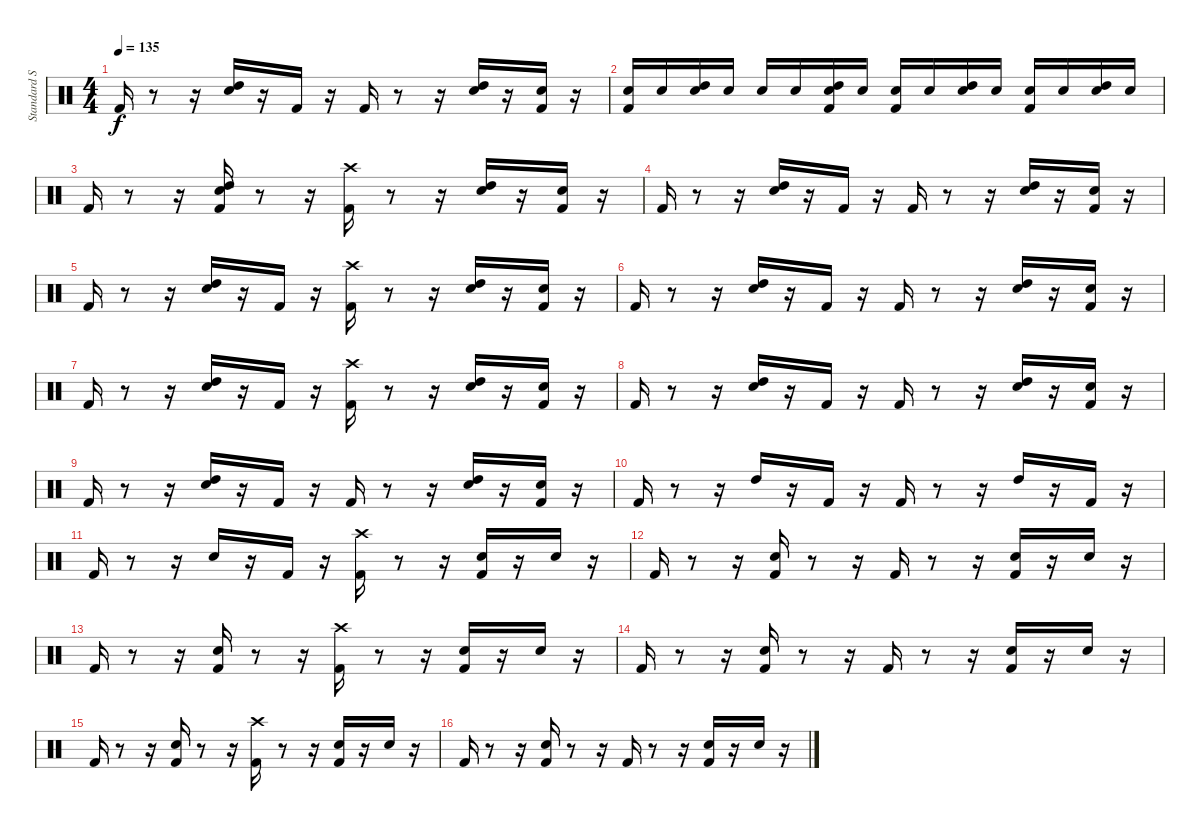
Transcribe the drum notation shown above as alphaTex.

\track ("Standard Set 1" "Standard S") {instrument percussion}
\staff {score}
\articulation defaults
\ts (4 4)
\tempo 135
\clef neutral
\ks c "Kick (hit) 2".16{dy f}
r.8 r.16 ("Snare (hit) 2" "High Tom (hit)").16 r.16 "Kick (hit) 2".16 r.16 "Kick (hit) 2".16 r.8 r.16 ("Snare (hit) 2" "High Tom (hit)").16 r.16 ("Snare (hit) 2" "Kick (hit) 2").16 r.16 |
("Snare (hit) 2" "Kick (hit) 2").16 "Snare (hit) 2".16 ("Snare (hit) 2" "High Tom (hit)").16 "Snare (hit) 2".16 "Snare (hit) 2".16 "Snare (hit) 2".16 ("Snare (hit) 2" "High Tom (hit)" "Kick (hit) 2").16 "Snare (hit) 2".16 ("Snare (hit) 2" "Kick (hit) 2").16 "Snare (hit) 2".16 ("Snare (hit) 2" "High Tom (hit)").16 "Snare (hit) 2".16 ("Snare (hit) 2" "Kick (hit) 2").16 "Snare (hit) 2".16 ("Snare (hit) 2" "High Tom (hit)").16 "Snare (hit) 2".16 |
"Kick (hit) 2".16 r.8 r.16 ("Snare (hit) 2" "High Tom (hit)" "Kick (hit) 2").16 r.8 r.16 ("Kick (hit) 2" "Crash high (hit)").16 r.8 r.16 ("Snare (hit) 2" "High Tom (hit)").16 r.16 ("Snare (hit) 2" "Kick (hit) 2").16 r.16 |
"Kick (hit) 2".16 r.8 r.16 ("Snare (hit) 2" "High Tom (hit)").16 r.16 "Kick (hit) 2".16 r.16 "Kick (hit) 2".16 r.8 r.16 ("Snare (hit) 2" "High Tom (hit)").16 r.16 ("Snare (hit) 2" "Kick (hit) 2").16 r.16 |
"Kick (hit) 2".16 r.8 r.16 ("Snare (hit) 2" "High Tom (hit)").16 r.16 "Kick (hit) 2".16 r.16 ("Kick (hit) 2" "Crash high (hit)").16 r.8 r.16 ("Snare (hit) 2" "High Tom (hit)").16 r.16 ("Snare (hit) 2" "Kick (hit) 2").16 r.16 |
"Kick (hit) 2".16 r.8 r.16 ("Snare (hit) 2" "High Tom (hit)").16 r.16 "Kick (hit) 2".16 r.16 "Kick (hit) 2".16 r.8 r.16 ("Snare (hit) 2" "High Tom (hit)").16 r.16 ("Snare (hit) 2" "Kick (hit) 2").16 r.16 |
"Kick (hit) 2".16 r.8 r.16 ("Snare (hit) 2" "High Tom (hit)").16 r.16 "Kick (hit) 2".16 r.16 ("Kick (hit) 2" "Crash high (hit)").16 r.8 r.16 ("Snare (hit) 2" "High Tom (hit)").16 r.16 ("Snare (hit) 2" "Kick (hit) 2").16 r.16 |
"Kick (hit) 2".16 r.8 r.16 ("Snare (hit) 2" "High Tom (hit)").16 r.16 "Kick (hit) 2".16 r.16 "Kick (hit) 2".16 r.8 r.16 ("Snare (hit) 2" "High Tom (hit)").16 r.16 ("Snare (hit) 2" "Kick (hit) 2").16 r.16 |
"Kick (hit) 2".16 r.8 r.16 ("Snare (hit) 2" "High Tom (hit)").16 r.16 "Kick (hit) 2".16 r.16 "Kick (hit) 2".16 r.8 r.16 ("Snare (hit) 2" "High Tom (hit)").16 r.16 ("Snare (hit) 2" "Kick (hit) 2").16 r.16 |
"Kick (hit) 2".16 r.8 r.16 "High Tom (hit)".16 r.16 "Kick (hit) 2".16 r.16 "Kick (hit) 2".16 r.8 r.16 "High Tom (hit)".16 r.16 "Kick (hit) 2".16 r.16 |
"Kick (hit) 2".16 r.8 r.16 "Snare (hit) 2".16 r.16 "Kick (hit) 2".16 r.16 ("Kick (hit) 2" "Crash high (hit)").16 r.8 r.16 ("Snare (hit) 2" "Kick (hit) 2").16 r.16 "Snare (hit) 2".16 r.16 |
"Kick (hit) 2".16 r.8 r.16 ("Snare (hit) 2" "Kick (hit) 2").16 r.8 r.16 "Kick (hit) 2".16 r.8 r.16 ("Snare (hit) 2" "Kick (hit) 2").16 r.16 "Snare (hit) 2".16 r.16 |
"Kick (hit) 2".16 r.8 r.16 ("Snare (hit) 2" "Kick (hit) 2").16 r.8 r.16 ("Kick (hit) 2" "Crash high (hit)").16 r.8 r.16 ("Snare (hit) 2" "Kick (hit) 2").16 r.16 "Snare (hit) 2".16 r.16 |
"Kick (hit) 2".16 r.8 r.16 ("Snare (hit) 2" "Kick (hit) 2").16 r.8 r.16 "Kick (hit) 2".16 r.8 r.16 ("Snare (hit) 2" "Kick (hit) 2").16 r.16 "Snare (hit) 2".16 r.16 |
"Kick (hit) 2".16 r.8 r.16 ("Snare (hit) 2" "Kick (hit) 2").16 r.8 r.16 ("Kick (hit) 2" "Crash high (hit)").16 r.8 r.16 ("Snare (hit) 2" "Kick (hit) 2").16 r.16 "Snare (hit) 2".16 r.16 |
"Kick (hit) 2".16 r.8 r.16 ("Snare (hit) 2" "Kick (hit) 2").16 r.8 r.16 "Kick (hit) 2".16 r.8 r.16 ("Snare (hit) 2" "Kick (hit) 2").16 r.16 "Snare (hit) 2".16 r.16
